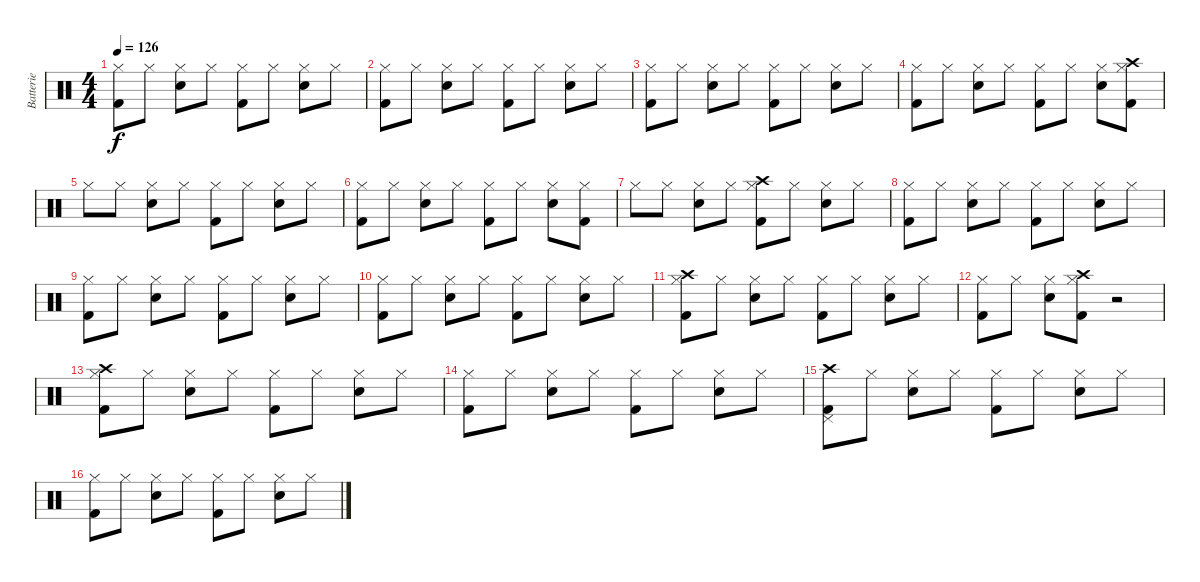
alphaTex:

\track ("Batterie" "Batterie") {instrument percussion}
\staff {score}
\articulation defaults
\ts (4 4)
\tempo 126
\clef neutral
\ks c
("Hi-Hat (closed)" "Kick (hit) 2").8{dy f} "Hi-Hat (closed)".8 ("Hi-Hat (closed)" "Snare (hit) 2").8 "Hi-Hat (closed)".8 ("Hi-Hat (closed)" "Kick (hit) 2").8 "Hi-Hat (closed)".8 ("Hi-Hat (closed)" "Snare (hit) 2").8 "Hi-Hat (closed)".8 |
("Hi-Hat (closed)" "Kick (hit) 2").8 "Hi-Hat (closed)".8 ("Hi-Hat (closed)" "Snare (hit) 2").8 "Hi-Hat (closed)".8 ("Hi-Hat (closed)" "Kick (hit) 2").8 "Hi-Hat (closed)".8 ("Hi-Hat (closed)" "Snare (hit) 2").8 "Hi-Hat (closed)".8 |
("Hi-Hat (closed)" "Kick (hit) 2").8 "Hi-Hat (closed)".8 ("Hi-Hat (closed)" "Snare (hit) 2").8 "Hi-Hat (closed)".8 ("Hi-Hat (closed)" "Kick (hit) 2").8 "Hi-Hat (closed)".8 ("Hi-Hat (closed)" "Snare (hit) 2").8 "Hi-Hat (closed)".8 |
("Hi-Hat (closed)" "Kick (hit) 2").8 "Hi-Hat (closed)".8 ("Hi-Hat (closed)" "Snare (hit) 2").8 "Hi-Hat (closed)".8 ("Hi-Hat (closed)" "Kick (hit) 2").8 "Hi-Hat (closed)".8 ("Hi-Hat (closed)" "Snare (hit) 2").8 ("Hi-Hat (closed)" "Crash high (hit)" "Kick (hit) 2").8 |
"Hi-Hat (closed)".8 "Hi-Hat (closed)".8 ("Hi-Hat (closed)" "Snare (hit) 2").8 "Hi-Hat (closed)".8 ("Hi-Hat (closed)" "Kick (hit) 2").8 "Hi-Hat (closed)".8 ("Hi-Hat (closed)" "Snare (hit) 2").8 "Hi-Hat (closed)".8 |
("Hi-Hat (closed)" "Kick (hit) 2").8 "Hi-Hat (closed)".8 ("Hi-Hat (closed)" "Snare (hit) 2").8 "Hi-Hat (closed)".8 ("Hi-Hat (closed)" "Kick (hit) 2").8 "Hi-Hat (closed)".8 ("Hi-Hat (closed)" "Snare (hit) 2").8 ("Hi-Hat (closed)" "Kick (hit) 2").8 |
"Hi-Hat (closed)".8 "Hi-Hat (closed)".8 ("Hi-Hat (closed)" "Snare (hit) 2").8 "Hi-Hat (closed)".8 ("Hi-Hat (closed)" "Crash high (hit)" "Kick (hit) 2").8 "Hi-Hat (closed)".8 ("Hi-Hat (closed)" "Snare (hit) 2").8 "Hi-Hat (closed)".8 |
("Hi-Hat (closed)" "Kick (hit) 2").8 "Hi-Hat (closed)".8 ("Hi-Hat (closed)" "Snare (hit) 2").8 "Hi-Hat (closed)".8 ("Hi-Hat (closed)" "Kick (hit) 2").8 "Hi-Hat (closed)".8 ("Hi-Hat (closed)" "Snare (hit) 2").8 "Hi-Hat (closed)".8 |
("Hi-Hat (closed)" "Kick (hit) 2").8 "Hi-Hat (closed)".8 ("Hi-Hat (closed)" "Snare (hit) 2").8 "Hi-Hat (closed)".8 ("Hi-Hat (closed)" "Kick (hit) 2").8 "Hi-Hat (closed)".8 ("Hi-Hat (closed)" "Snare (hit) 2").8 "Hi-Hat (closed)".8 |
("Hi-Hat (closed)" "Kick (hit) 2").8 "Hi-Hat (closed)".8 ("Hi-Hat (closed)" "Snare (hit) 2").8 "Hi-Hat (closed)".8 ("Hi-Hat (closed)" "Kick (hit) 2").8 "Hi-Hat (closed)".8 ("Hi-Hat (closed)" "Snare (hit) 2").8 "Hi-Hat (closed)".8 |
("Hi-Hat (closed)" "Crash high (hit)" "Kick (hit) 2").8 "Hi-Hat (closed)".8 ("Hi-Hat (closed)" "Snare (hit) 2").8 "Hi-Hat (closed)".8 ("Hi-Hat (closed)" "Kick (hit) 2").8 "Hi-Hat (closed)".8 ("Hi-Hat (closed)" "Snare (hit) 2").8 "Hi-Hat (closed)".8 |
("Hi-Hat (closed)" "Kick (hit) 2").8 "Hi-Hat (closed)".8 ("Hi-Hat (closed)" "Snare (hit) 2").8 ("Hi-Hat (closed)" "Crash high (hit)" "Kick (hit) 2").8 r.2 |
("Hi-Hat (closed)" "Crash high (hit)" "Kick (hit) 2").8 "Hi-Hat (closed)".8 ("Hi-Hat (closed)" "Snare (hit) 2").8 "Hi-Hat (closed)".8 ("Hi-Hat (closed)" "Kick (hit) 2").8 "Hi-Hat (closed)".8 ("Hi-Hat (closed)" "Snare (hit) 2").8 "Hi-Hat (closed)".8 |
("Hi-Hat (closed)" "Kick (hit) 2").8 "Hi-Hat (closed)".8 ("Hi-Hat (closed)" "Snare (hit) 2").8 "Hi-Hat (closed)".8 ("Hi-Hat (closed)" "Kick (hit) 2").8 "Hi-Hat (closed)".8 ("Hi-Hat (closed)" "Snare (hit) 2").8 "Hi-Hat (closed)".8 |
("Pedal Hi-Hat (hit)" "Crash high (hit)" "Kick (hit) 2").8 "Hi-Hat (closed)".8 ("Hi-Hat (closed)" "Snare (hit) 2").8 "Hi-Hat (closed)".8 ("Hi-Hat (closed)" "Kick (hit) 2").8 "Hi-Hat (closed)".8 ("Hi-Hat (closed)" "Snare (hit) 2").8 "Hi-Hat (closed)".8 |
("Hi-Hat (closed)" "Kick (hit) 2").8 "Hi-Hat (closed)".8 ("Hi-Hat (closed)" "Snare (hit) 2").8 "Hi-Hat (closed)".8 ("Hi-Hat (closed)" "Kick (hit) 2").8 "Hi-Hat (closed)".8 ("Hi-Hat (closed)" "Snare (hit) 2").8 "Hi-Hat (closed)".8
